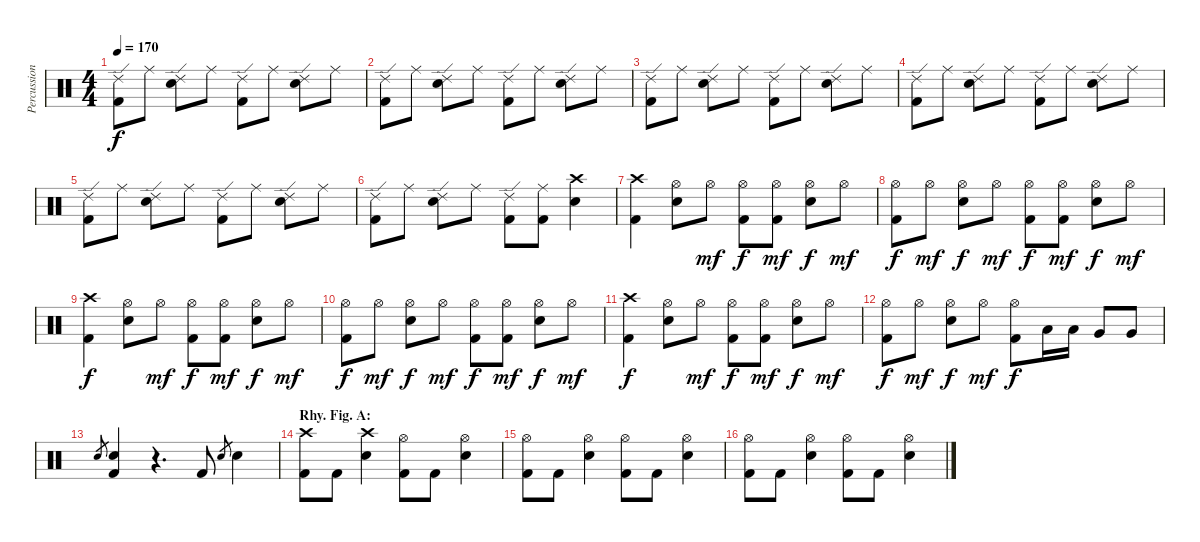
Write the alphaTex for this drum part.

\track ("Percussion" "Percussion") {instrument percussion}
\staff {score}
\articulation defaults
\ts (4 4)
\tempo 170
\clef neutral
\ks c
("Ride (edge) 2" "Kick (hit) 2").8{dy f} "Ride (middle)".8 ("Ride (edge) 2" "Snare (hit) 2").8 "Ride (middle)".8 ("Ride (edge) 2" "Kick (hit) 2").8 "Ride (middle)".8 ("Ride (edge) 2" "Snare (hit) 2").8 "Ride (middle)".8 |
("Ride (edge) 2" "Kick (hit) 2").8 "Ride (middle)".8 ("Ride (edge) 2" "Snare (hit) 2").8 "Ride (middle)".8 ("Ride (edge) 2" "Kick (hit) 2").8 "Ride (middle)".8 ("Ride (edge) 2" "Snare (hit) 2").8 "Ride (middle)".8 |
("Ride (edge) 2" "Kick (hit) 2").8 "Ride (middle)".8 ("Ride (edge) 2" "Snare (hit) 2").8 "Ride (middle)".8 ("Ride (edge) 2" "Kick (hit) 2").8 "Ride (middle)".8 ("Ride (edge) 2" "Snare (hit) 2").8 "Ride (middle)".8 |
("Ride (edge) 2" "Kick (hit) 2").8 "Ride (middle)".8 ("Ride (edge) 2" "Snare (hit) 2").8 "Ride (middle)".8 ("Ride (edge) 2" "Kick (hit) 2").8 "Ride (middle)".8 ("Ride (edge) 2" "Snare (hit) 2").8 "Ride (middle)".8 |
("Ride (edge) 2" "Kick (hit) 2").8 "Ride (middle)".8 ("Ride (edge) 2" "Snare (hit) 2").8 "Ride (middle)".8 ("Ride (edge) 2" "Kick (hit) 2").8 "Ride (middle)".8 ("Ride (edge) 2" "Snare (hit) 2").8 "Ride (middle)".8 |
("Ride (edge) 2" "Kick (hit) 2").8 "Ride (middle)".8 ("Ride (edge) 2" "Snare (hit) 2").8 "Ride (middle)".8 ("Ride (edge) 2" "Kick (hit) 2").8 ("Ride (middle)" "Kick (hit) 2").8 ("Crash high (hit)" "Snare (hit) 2").4 |
("Crash high (hit)" "Kick (hit) 2").4 ("Hi-Hat (open)" "Snare (hit) 2").8 "Hi-Hat (open)".8{dy mf} ("Hi-Hat (open)" "Kick (hit) 2").8{dy f} ("Hi-Hat (open)" "Kick (hit) 2").8{dy mf} ("Hi-Hat (open)" "Snare (hit) 2").8{dy f} "Hi-Hat (open)".8{dy mf} |
("Hi-Hat (open)" "Kick (hit) 2").8{dy f} "Hi-Hat (open)".8{dy mf} ("Hi-Hat (open)" "Snare (hit) 2").8{dy f} "Hi-Hat (open)".8{dy mf} ("Hi-Hat (open)" "Kick (hit) 2").8{dy f} ("Hi-Hat (open)" "Kick (hit) 2").8{dy mf} ("Hi-Hat (open)" "Snare (hit) 2").8{dy f} "Hi-Hat (open)".8{dy mf} |
("Crash high (hit)" "Kick (hit) 2").4{dy f} ("Hi-Hat (open)" "Snare (hit) 2").8 "Hi-Hat (open)".8{dy mf} ("Hi-Hat (open)" "Kick (hit) 2").8{dy f} ("Hi-Hat (open)" "Kick (hit) 2").8{dy mf} ("Hi-Hat (open)" "Snare (hit) 2").8{dy f} "Hi-Hat (open)".8{dy mf} |
("Hi-Hat (open)" "Kick (hit) 2").8{dy f} "Hi-Hat (open)".8{dy mf} ("Hi-Hat (open)" "Snare (hit) 2").8{dy f} "Hi-Hat (open)".8{dy mf} ("Hi-Hat (open)" "Kick (hit) 2").8{dy f} ("Hi-Hat (open)" "Kick (hit) 2").8{dy mf} ("Hi-Hat (open)" "Snare (hit) 2").8{dy f} "Hi-Hat (open)".8{dy mf} |
("Crash high (hit)" "Kick (hit) 2").4{dy f} ("Hi-Hat (open)" "Snare (hit) 2").8 "Hi-Hat (open)".8{dy mf} ("Hi-Hat (open)" "Kick (hit) 2").8{dy f} ("Hi-Hat (open)" "Kick (hit) 2").8{dy mf} ("Hi-Hat (open)" "Snare (hit) 2").8{dy f} "Hi-Hat (open)".8{dy mf} |
("Hi-Hat (open)" "Kick (hit) 2").8{dy f} "Hi-Hat (open)".8{dy mf} ("Hi-Hat (open)" "Snare (hit) 2").8{dy f} "Hi-Hat (open)".8{dy mf} ("Hi-Hat (open)" "Kick (hit) 2").8{dy f} "Low Tom (hit)".16 "Low Tom (hit)".16 "Very Low Tom (hit)".8 "Very Low Tom (hit)".8 |
"Snare (hit) 2".8{gr} ("Snare (hit) 2" "Kick (hit) 2").4 r.4{d} "Kick (hit) 2".8 "Snare (hit) 2".8{gr} "Snare (hit) 2".4 |
\section ("" "Rhy. Fig. A:")
("Crash high (hit)" "Kick (hit) 2").8 "Kick (hit) 2".8 ("Crash high (hit)" "Snare (hit) 2").4 ("Hi-Hat (open)" "Kick (hit) 2").8 "Kick (hit) 2".8 ("Hi-Hat (open)" "Snare (hit) 2").4 |
("Hi-Hat (open)" "Kick (hit) 2").8 "Kick (hit) 2".8 ("Hi-Hat (open)" "Snare (hit) 2").4 ("Hi-Hat (open)" "Kick (hit) 2").8 "Kick (hit) 2".8 ("Hi-Hat (open)" "Snare (hit) 2").4 |
("Hi-Hat (open)" "Kick (hit) 2").8 "Kick (hit) 2".8 ("Hi-Hat (open)" "Snare (hit) 2").4 ("Hi-Hat (open)" "Kick (hit) 2").8 "Kick (hit) 2".8 ("Hi-Hat (open)" "Snare (hit) 2").4
